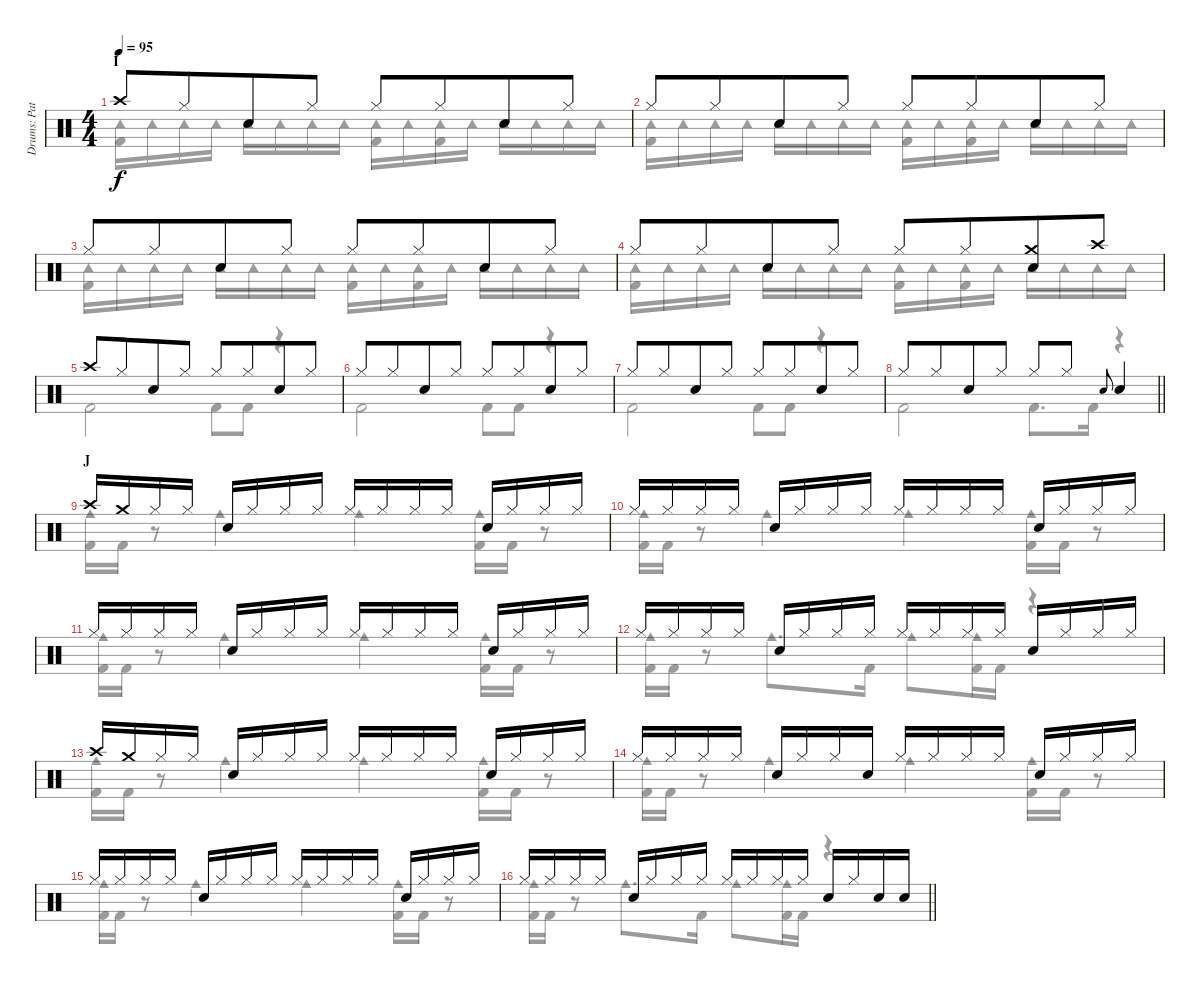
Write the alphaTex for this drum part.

\track ("Drums: Pat" "Drums: Pat") {instrument percussion}
\staff {score}
\articulation defaults
\voice
\ts (4 4)
\section ("" "I")
\tempo 95
\clef neutral
\ks c "Crash high (hit)".8{dy f} "Hi-Hat (closed)".8{beam merge} "Snare (hit) 2".8 "Hi-Hat (closed)".8 "Hi-Hat (closed)".8 "Hi-Hat (closed)".8{beam merge} "Snare (hit) 2".8 "Hi-Hat (closed)".8
|
"Hi-Hat (closed)".8 "Hi-Hat (closed)".8{beam merge} "Snare (hit) 2".8 "Hi-Hat (closed)".8 "Hi-Hat (closed)".8 "Hi-Hat (closed)".8{beam merge} "Snare (hit) 2".8 "Hi-Hat (closed)".8 |
"Hi-Hat (closed)".8 "Hi-Hat (closed)".8{beam merge} "Snare (hit) 2".8 "Hi-Hat (closed)".8 "Hi-Hat (closed)".8 "Hi-Hat (closed)".8{beam merge} "Snare (hit) 2".8 "Hi-Hat (closed)".8 |
"Hi-Hat (closed)".8 "Hi-Hat (closed)".8{beam merge} "Snare (hit) 2".8 "Hi-Hat (closed)".8 "Hi-Hat (closed)".8 "Hi-Hat (closed)".8{beam merge} ("Crash medium (hit)" "Snare (hit) 2").8 "Crash high (hit)".8 |
"Crash high (hit)".8 "Hi-Hat (closed)".8{beam merge} "Snare (hit) 2".8 "Hi-Hat (closed)".8 "Hi-Hat (closed)".8 "Hi-Hat (closed)".8{beam merge} "Snare (hit) 2".8 "Hi-Hat (closed)".8 |
"Hi-Hat (closed)".8 "Hi-Hat (closed)".8{beam merge} "Snare (hit) 2".8 "Hi-Hat (closed)".8 "Hi-Hat (closed)".8 "Hi-Hat (closed)".8{beam merge} "Snare (hit) 2".8 "Hi-Hat (closed)".8 |
"Hi-Hat (closed)".8 "Hi-Hat (closed)".8{beam merge} "Snare (hit) 2".8 "Hi-Hat (closed)".8 "Hi-Hat (closed)".8 "Hi-Hat (closed)".8{beam merge} "Snare (hit) 2".8 "Hi-Hat (closed)".8 |
\barLineRight lightlight "Hi-Hat (closed)".8 "Hi-Hat (closed)".8{beam merge} "Snare (hit) 2".8 "Hi-Hat (closed)".8 "Hi-Hat (closed)".8 "Hi-Hat (closed)".8 "Electric Snare (hit)".8{gr onbeat beam merge} "Snare (hit) 2".4
|
\section ("" "J")
"Crash high (hit)".16 "Crash medium (hit)".16 "Hi-Hat (closed)".16 "Hi-Hat (closed)".16 "Snare (hit) 2".16 "Hi-Hat (closed)".16 "Hi-Hat (closed)".16 "Hi-Hat (closed)".16 "Hi-Hat (closed)".16 "Hi-Hat (closed)".16 "Hi-Hat (closed)".16 "Hi-Hat (closed)".16 "Snare (hit) 2".16 "Hi-Hat (closed)".16 "Hi-Hat (closed)".16 "Hi-Hat (closed)".16 |
"Hi-Hat (closed)".16 "Hi-Hat (closed)".16 "Hi-Hat (closed)".16 "Hi-Hat (closed)".16 "Snare (hit) 2".16 "Hi-Hat (closed)".16 "Hi-Hat (closed)".16 "Hi-Hat (closed)".16 "Hi-Hat (closed)".16 "Hi-Hat (closed)".16 "Hi-Hat (closed)".16 "Hi-Hat (closed)".16 "Snare (hit) 2".16 "Hi-Hat (closed)".16 "Hi-Hat (closed)".16 "Hi-Hat (closed)".16 |
"Hi-Hat (closed)".16 "Hi-Hat (closed)".16 "Hi-Hat (closed)".16 "Hi-Hat (closed)".16 "Snare (hit) 2".16 "Hi-Hat (closed)".16 "Hi-Hat (closed)".16 "Hi-Hat (closed)".16 "Hi-Hat (closed)".16 "Hi-Hat (closed)".16 "Hi-Hat (closed)".16 "Hi-Hat (closed)".16 "Snare (hit) 2".16 "Hi-Hat (closed)".16 "Hi-Hat (closed)".16 "Hi-Hat (closed)".16 |
"Hi-Hat (closed)".16 "Hi-Hat (closed)".16 "Hi-Hat (closed)".16 "Hi-Hat (closed)".16 "Snare (hit) 2".16 "Hi-Hat (closed)".16 "Hi-Hat (closed)".16 "Hi-Hat (closed)".16 "Hi-Hat (closed)".16 "Hi-Hat (closed)".16 "Hi-Hat (closed)".16 "Hi-Hat (closed)".16 "Snare (hit) 2".16 "Hi-Hat (closed)".16 "Hi-Hat (closed)".16 "Hi-Hat (closed)".16 |
"Crash high (hit)".16 "Crash medium (hit)".16 "Hi-Hat (closed)".16 "Hi-Hat (closed)".16 "Snare (hit) 2".16 "Hi-Hat (closed)".16 "Hi-Hat (closed)".16 "Hi-Hat (closed)".16 "Hi-Hat (closed)".16 "Hi-Hat (closed)".16 "Hi-Hat (closed)".16 "Hi-Hat (closed)".16 "Snare (hit) 2".16 "Hi-Hat (closed)".16 "Hi-Hat (closed)".16 "Hi-Hat (closed)".16 |
"Hi-Hat (closed)".16 "Hi-Hat (closed)".16 "Hi-Hat (closed)".16 "Hi-Hat (closed)".16 "Snare (hit) 2".16 "Hi-Hat (closed)".16 "Hi-Hat (closed)".16 "Snare (hit) 2".16 "Hi-Hat (closed)".16 "Hi-Hat (closed)".16 "Hi-Hat (closed)".16 "Hi-Hat (closed)".16 "Snare (hit) 2".16 "Hi-Hat (closed)".16 "Hi-Hat (closed)".16 "Hi-Hat (closed)".16 |
"Hi-Hat (closed)".16 "Hi-Hat (closed)".16 "Hi-Hat (closed)".16 "Hi-Hat (closed)".16 "Snare (hit) 2".16 "Hi-Hat (closed)".16 "Hi-Hat (closed)".16 "Hi-Hat (closed)".16 "Hi-Hat (closed)".16 "Hi-Hat (closed)".16 "Hi-Hat (closed)".16 "Hi-Hat (closed)".16 "Snare (hit) 2".16 "Hi-Hat (closed)".16 "Hi-Hat (closed)".16 "Hi-Hat (closed)".16 |
\barLineRight lightlight "Hi-Hat (closed)".16 "Hi-Hat (closed)".16 "Hi-Hat (closed)".16 "Hi-Hat (closed)".16 "Snare (hit) 2".16 "Hi-Hat (closed)".16 "Hi-Hat (closed)".16 "Hi-Hat (closed)".16 "Hi-Hat (closed)".16 "Hi-Hat (closed)".16 "Hi-Hat (closed)".16 "Hi-Hat (closed)".16 "Snare (hit) 2".16 "Hi-Hat (closed)".16 "Snare (hit) 2".16 "Snare (hit) 2".16
\voice
\clef neutral
\ottava regular
\simile none
\ks c
("Kick (hit) 2" "Tambourine (hit)").16{dy f} "Tambourine (hit)".16 "Tambourine (hit)".16 "Tambourine (hit)".16 "Tambourine (hit)".16 "Tambourine (hit)".16 "Tambourine (hit)".16 "Tambourine (hit)".16 ("Kick (hit) 2" "Tambourine (hit)").16 "Tambourine (hit)".16 ("Kick (hit) 2" "Tambourine (hit)").16 "Tambourine (hit)".16 "Tambourine (hit)".16 "Tambourine (hit)".16 "Tambourine (hit)".16 "Tambourine (hit)".16 |
("Kick (hit) 2" "Tambourine (hit)").16 "Tambourine (hit)".16 "Tambourine (hit)".16 "Tambourine (hit)".16 "Tambourine (hit)".16 "Tambourine (hit)".16 "Tambourine (hit)".16 "Tambourine (hit)".16 ("Kick (hit) 2" "Tambourine (hit)").16 "Tambourine (hit)".16 ("Kick (hit) 2" "Tambourine (hit)").16 "Tambourine (hit)".16 "Tambourine (hit)".16 "Tambourine (hit)".16 "Tambourine (hit)".16 "Tambourine (hit)".16 |
("Kick (hit) 2" "Tambourine (hit)").16 "Tambourine (hit)".16 "Tambourine (hit)".16 "Tambourine (hit)".16 "Tambourine (hit)".16 "Tambourine (hit)".16 "Tambourine (hit)".16 "Tambourine (hit)".16 ("Kick (hit) 2" "Tambourine (hit)").16 "Tambourine (hit)".16 ("Kick (hit) 2" "Tambourine (hit)").16 "Tambourine (hit)".16 "Tambourine (hit)".16 "Tambourine (hit)".16 "Tambourine (hit)".16 "Tambourine (hit)".16 |
("Kick (hit) 2" "Tambourine (hit)").16 "Tambourine (hit)".16 "Tambourine (hit)".16 "Tambourine (hit)".16 "Tambourine (hit)".16 "Tambourine (hit)".16 "Tambourine (hit)".16 "Tambourine (hit)".16 ("Kick (hit) 2" "Tambourine (hit)").16 "Tambourine (hit)".16 ("Kick (hit) 2" "Tambourine (hit)").16 "Tambourine (hit)".16 "Tambourine (hit)".16 "Tambourine (hit)".16 "Tambourine (hit)".16 "Tambourine (hit)".16 |
"Kick (hit) 2".2 "Kick (hit) 2".8 "Kick (hit) 2".8 r.4 |
"Kick (hit) 2".2 "Kick (hit) 2".8 "Kick (hit) 2".8 r.4 |
"Kick (hit) 2".2 "Kick (hit) 2".8 "Kick (hit) 2".8 r.4 |
\barLineRight lightlight "Kick (hit) 2".2 "Kick (hit) 2".8{d} "Kick (hit) 2".16
r.4 |
("Kick (hit) 2" "Cowbell medium (hit)").16 "Kick (hit) 2".16 r.8 "Cowbell medium (hit)".4 "Cowbell medium (hit)".4 ("Kick (hit) 2" "Cowbell medium (hit)").16 "Kick (hit) 2".16 r.8 |
("Kick (hit) 2" "Cowbell medium (hit)").16 "Kick (hit) 2".16 r.8 "Cowbell medium (hit)".4 "Cowbell medium (hit)".4 ("Kick (hit) 2" "Cowbell medium (hit)").16 "Kick (hit) 2".16 r.8 |
("Kick (hit) 2" "Cowbell medium (hit)").16 "Kick (hit) 2".16 r.8 "Cowbell medium (hit)".4 "Cowbell medium (hit)".4 ("Kick (hit) 2" "Cowbell medium (hit)").16 "Kick (hit) 2".16 r.8 |
("Kick (hit) 2" "Cowbell medium (hit)").16 "Kick (hit) 2".16 r.8 "Cowbell medium (hit)".8{d} "Kick (hit) 2".16 "Cowbell medium (hit)".8 ("Kick (hit) 2" "Cowbell medium (hit)").16 "Kick (hit) 2".16 r.4 |
("Kick (hit) 2" "Cowbell medium (hit)").16 "Kick (hit) 2".16 r.8 "Cowbell medium (hit)".4 "Cowbell medium (hit)".4 ("Kick (hit) 2" "Cowbell medium (hit)").16 "Kick (hit) 2".16 r.8 |
("Kick (hit) 2" "Cowbell medium (hit)").16 "Kick (hit) 2".16 r.8 "Cowbell medium (hit)".4 "Cowbell medium (hit)".4 ("Kick (hit) 2" "Cowbell medium (hit)").16 "Kick (hit) 2".16 r.8 |
("Kick (hit) 2" "Cowbell medium (hit)").16 "Kick (hit) 2".16 r.8 "Cowbell medium (hit)".4 "Cowbell medium (hit)".4 ("Kick (hit) 2" "Cowbell medium (hit)").16 "Kick (hit) 2".16 r.8 |
\barLineRight lightlight
("Kick (hit) 2" "Cowbell medium (hit)").16 "Kick (hit) 2".16 r.8 "Cowbell medium (hit)".8{d} "Kick (hit) 2".16 "Cowbell medium (hit)".8 ("Kick (hit) 2" "Cowbell medium (hit)").16 "Kick (hit) 2".16 r.4
